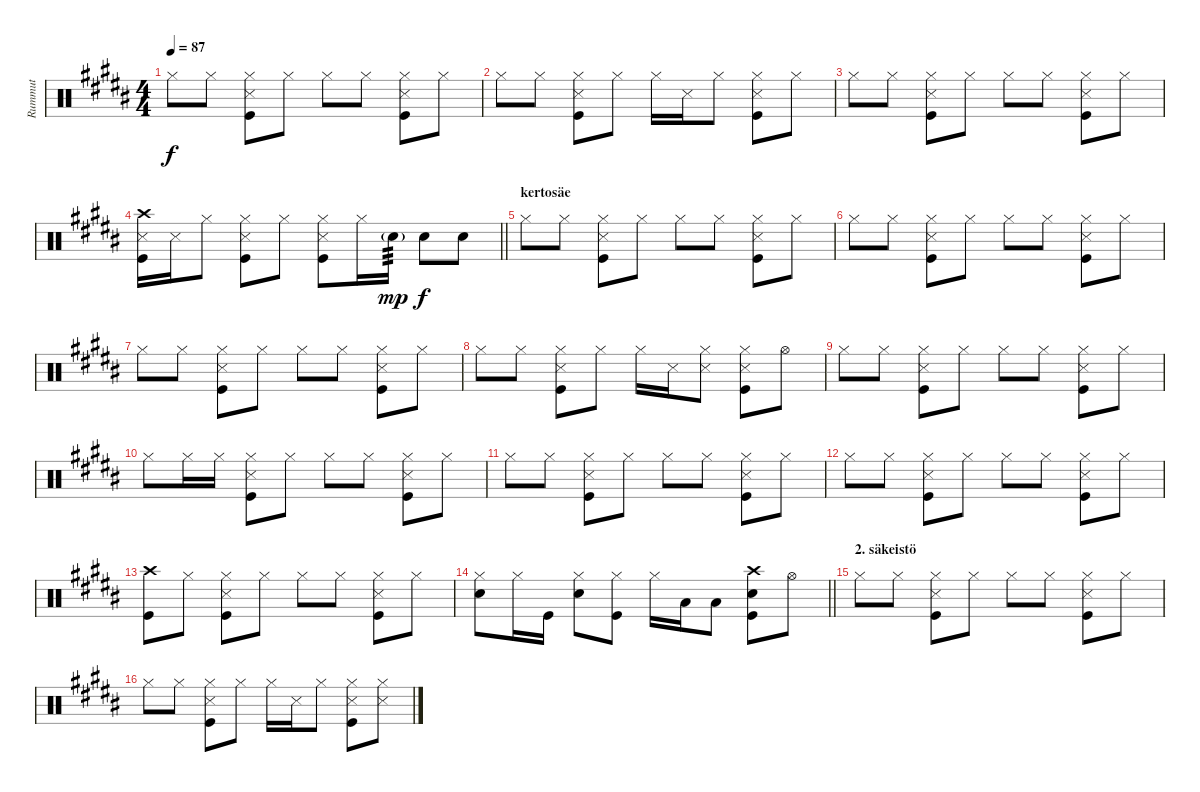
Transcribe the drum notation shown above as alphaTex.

\track ("Rummut" "Rummut") {instrument percussion}
\staff {score}
\articulation defaults
\ts (4 4)
\tempo 87
\clef neutral
\ks g#minor "Hi-Hat (closed)".8{dy f} "Hi-Hat (closed)".8
("Hi-Hat (closed)" "Snare (side stick) 3" "Kick (hit)").8 "Hi-Hat (closed)".8 "Hi-Hat (closed)".8 "Hi-Hat (closed)".8 ("Hi-Hat (closed)" "Snare (side stick) 3" "Kick (hit)").8 "Hi-Hat (closed)".8 |
"Hi-Hat (closed)".8 "Hi-Hat (closed)".8 ("Hi-Hat (closed)" "Snare (side stick) 3" "Kick (hit)").8 "Hi-Hat (closed)".8 "Hi-Hat (closed)".16 "Snare (side stick) 3".16 "Hi-Hat (closed)".8 ("Hi-Hat (closed)" "Snare (side stick) 3" "Kick (hit)").8 "Hi-Hat (closed)".8 |
"Hi-Hat (closed)".8 "Hi-Hat (closed)".8 ("Hi-Hat (closed)" "Snare (side stick) 3" "Kick (hit)").8 "Hi-Hat (closed)".8 "Hi-Hat (closed)".8 "Hi-Hat (closed)".8 ("Hi-Hat (closed)" "Snare (side stick) 3" "Kick (hit)").8 "Hi-Hat (closed)".8 |
\barLineRight lightlight
("Crash high (hit)" "Snare (side stick) 3" "Kick (hit)").16 "Snare (side stick) 3".16 "Hi-Hat (closed)".8 ("Hi-Hat (closed)" "Snare (side stick) 3" "Kick (hit)").8 "Hi-Hat (closed)".8 ("Hi-Hat (closed)" "Snare (side stick) 3" "Kick (hit)").8 "Hi-Hat (closed)".16 "Snare (hit) 2"{g}.16{tp 3 dy mp} "Snare (hit) 2".8{dy f} "Snare (hit) 2".8 |
\section ("" "kertosäe")
"Hi-Hat (closed)".8 "Hi-Hat (closed)".8 ("Hi-Hat (closed)" "Snare (side stick) 3" "Kick (hit)").8 "Hi-Hat (closed)".8 "Hi-Hat (closed)".8 "Hi-Hat (closed)".8 ("Hi-Hat (closed)" "Snare (side stick) 3" "Kick (hit)").8 "Hi-Hat (closed)".8 |
"Hi-Hat (closed)".8 "Hi-Hat (closed)".8 ("Hi-Hat (closed)" "Snare (side stick) 3" "Kick (hit)").8 "Hi-Hat (closed)".8 "Hi-Hat (closed)".8 "Hi-Hat (closed)".8 ("Hi-Hat (closed)" "Snare (side stick) 3" "Kick (hit)").8 "Hi-Hat (closed)".8 |
"Hi-Hat (closed)".8 "Hi-Hat (closed)".8 ("Hi-Hat (closed)" "Snare (side stick) 3" "Kick (hit)").8 "Hi-Hat (closed)".8 "Hi-Hat (closed)".8 "Hi-Hat (closed)".8 ("Hi-Hat (closed)" "Snare (side stick) 3" "Kick (hit)").8 "Hi-Hat (closed)".8 |
"Hi-Hat (closed)".8 "Hi-Hat (closed)".8 ("Hi-Hat (closed)" "Snare (side stick) 3" "Kick (hit)").8 "Hi-Hat (closed)".8 "Hi-Hat (closed)".16 "Snare (side stick) 3".16 ("Hi-Hat (closed)" "Snare (side stick) 3").8 ("Hi-Hat (closed)" "Snare (side stick) 3" "Kick (hit)").8 "Hi-Hat (open)".8 |
"Hi-Hat (closed)".8 "Hi-Hat (closed)".8 ("Hi-Hat (closed)" "Snare (side stick) 3" "Kick (hit)").8 "Hi-Hat (closed)".8 "Hi-Hat (closed)".8 "Hi-Hat (closed)".8 ("Hi-Hat (closed)" "Snare (side stick) 3" "Kick (hit)").8 "Hi-Hat (closed)".8 |
"Hi-Hat (closed)".8 "Hi-Hat (closed)".16 "Hi-Hat (closed)".16 ("Hi-Hat (closed)" "Snare (side stick) 3" "Kick (hit)").8 "Hi-Hat (closed)".8 "Hi-Hat (closed)".8 "Hi-Hat (closed)".8 ("Hi-Hat (closed)" "Snare (side stick) 3" "Kick (hit)").8 "Hi-Hat (closed)".8 |
"Hi-Hat (closed)".8 "Hi-Hat (closed)".8 ("Hi-Hat (closed)" "Snare (side stick) 3" "Kick (hit)").8 "Hi-Hat (closed)".8 "Hi-Hat (closed)".8 "Hi-Hat (closed)".8 ("Hi-Hat (closed)" "Snare (side stick) 3" "Kick (hit)").8 "Hi-Hat (closed)".8 |
"Hi-Hat (closed)".8 "Hi-Hat (closed)".8 ("Hi-Hat (closed)" "Snare (side stick) 3" "Kick (hit)").8 "Hi-Hat (closed)".8 "Hi-Hat (closed)".8 "Hi-Hat (closed)".8 ("Hi-Hat (closed)" "Snare (side stick) 3" "Kick (hit)").8 "Hi-Hat (closed)".8 |
("Crash high (hit)" "Kick (hit)").8 "Hi-Hat (closed)".8 ("Hi-Hat (closed)" "Snare (side stick) 3" "Kick (hit)").8 "Hi-Hat (closed)".8 "Hi-Hat (closed)".8 "Hi-Hat (closed)".8 ("Hi-Hat (closed)" "Snare (side stick) 3" "Kick (hit)").8 "Hi-Hat (closed)".8 |
\barLineRight lightlight
("Hi-Hat (closed)" "Snare (hit) 2").8 "Hi-Hat (closed)".16 "Kick (hit)".16 ("Hi-Hat (closed)" "Snare (hit) 2").8 ("Hi-Hat (closed)" "Kick (hit)").8 "Hi-Hat (closed)".16 "Low Tom (hit)".16 "Low Floor Tom (hit)".8 ("Crash high (hit)" "Snare (hit) 2" "Kick (hit)").8 "Hi-Hat (open)".8 |
\section ("" "2. säkeistö")
"Hi-Hat (closed)".8 "Hi-Hat (closed)".8 ("Hi-Hat (closed)" "Snare (side stick) 3" "Kick (hit)").8 "Hi-Hat (closed)".8 "Hi-Hat (closed)".8 "Hi-Hat (closed)".8 ("Hi-Hat (closed)" "Snare (side stick) 3" "Kick (hit)").8 "Hi-Hat (closed)".8 |
"Hi-Hat (closed)".8 "Hi-Hat (closed)".8 ("Hi-Hat (closed)" "Snare (side stick) 3" "Kick (hit)").8 "Hi-Hat (closed)".8 "Hi-Hat (closed)".16 "Snare (side stick) 3".16 "Hi-Hat (closed)".8 ("Hi-Hat (closed)" "Snare (side stick) 3" "Kick (hit)").8 ("Hi-Hat (closed)" "Snare (side stick) 3").8
